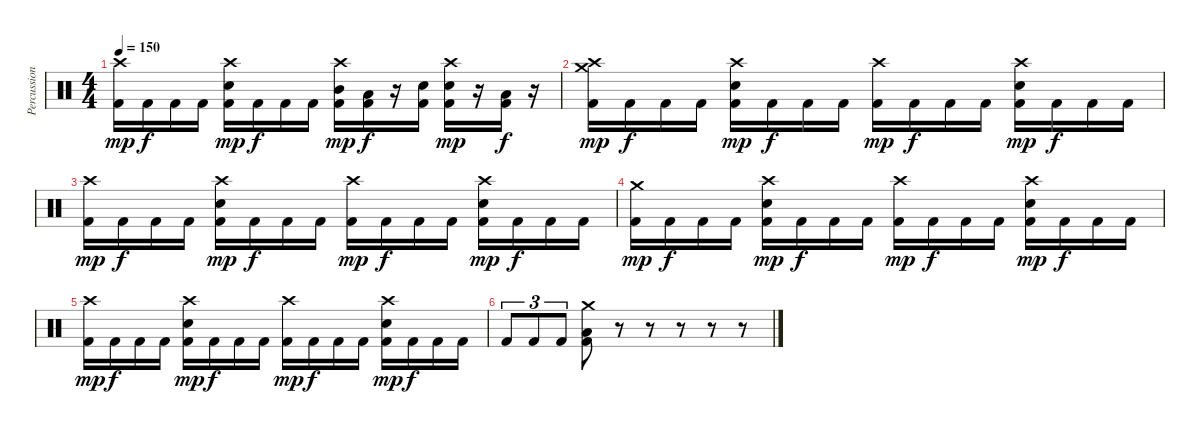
\track ("Percussion" "Percussion") {instrument percussion}
\staff {score}
\articulation defaults
\ts (4 4)
\tempo 150
\clef neutral
\ks c
("Crash high (hit)" "Kick (hit) 2").16{dy mp} "Kick (hit) 2".16{dy f} "Kick (hit) 2".16 "Kick (hit) 2".16 ("Crash high (hit)" "Electric Snare (hit)" "Kick (hit) 2").16{dy mp} "Kick (hit) 2".16{dy f} "Kick (hit) 2".16 "Kick (hit) 2".16 ("Crash high (hit)" "Mid Tom (hit)" "Kick (hit) 2").16{dy mp} ("Low Tom (hit)" "Kick (hit) 2").16{dy f} r.16 ("Electric Snare (hit)" "Kick (hit) 2").16 ("Crash high (hit)" "Electric Snare (hit)" "Kick (hit) 2").16{dy mp} r.16 ("Low Floor Tom (hit)" "Kick (hit) 2").16{dy f} r.16 |
("Crash medium (hit)" "Crash high (hit)" "Kick (hit) 2").16{dy mp} "Kick (hit) 2".16{dy f} "Kick (hit) 2".16 "Kick (hit) 2".16 ("Crash high (hit)" "Electric Snare (hit)" "Kick (hit) 2").16{dy mp} "Kick (hit) 2".16{dy f} "Kick (hit) 2".16 "Kick (hit) 2".16 ("Crash high (hit)" "Kick (hit) 2").16{dy mp} "Kick (hit) 2".16{dy f} "Kick (hit) 2".16 "Kick (hit) 2".16 ("Crash high (hit)" "Electric Snare (hit)" "Kick (hit) 2").16{dy mp} "Kick (hit) 2".16{dy f} "Kick (hit) 2".16 "Kick (hit) 2".16 |
("Crash high (hit)" "Kick (hit) 2").16{dy mp} "Kick (hit) 2".16{dy f} "Kick (hit) 2".16 "Kick (hit) 2".16 ("Crash high (hit)" "Electric Snare (hit)" "Kick (hit) 2").16{dy mp} "Kick (hit) 2".16{dy f} "Kick (hit) 2".16 "Kick (hit) 2".16 ("Crash high (hit)" "Kick (hit) 2").16{dy mp} "Kick (hit) 2".16{dy f} "Kick (hit) 2".16 "Kick (hit) 2".16 ("Crash high (hit)" "Electric Snare (hit)" "Kick (hit) 2").16{dy mp} "Kick (hit) 2".16{dy f} "Kick (hit) 2".16 "Kick (hit) 2".16 |
("Crash medium (hit)" "Kick (hit) 2").16{dy mp} "Kick (hit) 2".16{dy f} "Kick (hit) 2".16 "Kick (hit) 2".16 ("Crash high (hit)" "Electric Snare (hit)" "Kick (hit) 2").16{dy mp} "Kick (hit) 2".16{dy f} "Kick (hit) 2".16 "Kick (hit) 2".16 ("Crash high (hit)" "Kick (hit) 2").16{dy mp} "Kick (hit) 2".16{dy f} "Kick (hit) 2".16 "Kick (hit) 2".16 ("Crash high (hit)" "Electric Snare (hit)" "Kick (hit) 2").16{dy mp} "Kick (hit) 2".16{dy f} "Kick (hit) 2".16 "Kick (hit) 2".16 |
("Crash high (hit)" "Kick (hit) 2").16{dy mp} "Kick (hit) 2".16{dy f} "Kick (hit) 2".16 "Kick (hit) 2".16 ("Crash high (hit)" "Electric Snare (hit)" "Kick (hit) 2").16{dy mp} "Kick (hit) 2".16{dy f} "Kick (hit) 2".16 "Kick (hit) 2".16 ("Crash high (hit)" "Kick (hit) 2").16{dy mp} "Kick (hit) 2".16{dy f} "Kick (hit) 2".16 "Kick (hit) 2".16 ("Crash high (hit)" "Electric Snare (hit)" "Kick (hit) 2").16{dy mp} "Kick (hit) 2".16{dy f} "Kick (hit) 2".16 "Kick (hit) 2".16 |
"Kick (hit) 2".8{tu (3 2)} "Kick (hit) 2".8{tu (3 2)} "Kick (hit) 2".8{tu (3 2)} ("Crash medium (hit)" "Low Floor Tom (hit)" "Kick (hit) 2").8 r.8 r.8 r.8 r.8 r.8
